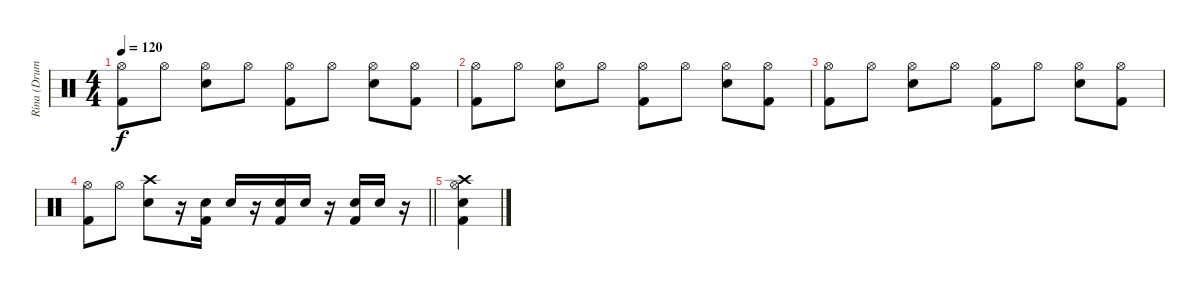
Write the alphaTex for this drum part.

\track ("Rina (Drums)" "Rina (Drum") {instrument percussion}
\staff {score}
\articulation defaults
\ts (4 4)
\tempo 120
\clef neutral
\ks c
("Hi-Hat (open)" "Kick (hit) 2").8{dy f} "Hi-Hat (open)".8 ("Hi-Hat (open)" "Snare (hit) 2").8 "Hi-Hat (open)".8 ("Hi-Hat (open)" "Kick (hit) 2").8 "Hi-Hat (open)".8 ("Hi-Hat (open)" "Snare (hit) 2").8 ("Hi-Hat (open)" "Kick (hit) 2").8 |
("Hi-Hat (open)" "Kick (hit) 2").8 "Hi-Hat (open)".8 ("Hi-Hat (open)" "Snare (hit) 2").8 "Hi-Hat (open)".8 ("Hi-Hat (open)" "Kick (hit) 2").8 "Hi-Hat (open)".8 ("Hi-Hat (open)" "Snare (hit) 2").8 ("Hi-Hat (open)" "Kick (hit) 2").8 |
("Hi-Hat (open)" "Kick (hit) 2").8 "Hi-Hat (open)".8 ("Hi-Hat (open)" "Snare (hit) 2").8 "Hi-Hat (open)".8 ("Hi-Hat (open)" "Kick (hit) 2").8 "Hi-Hat (open)".8 ("Hi-Hat (open)" "Snare (hit) 2").8 ("Hi-Hat (open)" "Kick (hit) 2").8 |
\barLineRight lightlight
("Hi-Hat (open)" "Kick (hit) 2").8 "Hi-Hat (open)".8 ("Crash high (hit)" "Snare (hit) 2").8 r.16 ("Snare (hit) 2" "Kick (hit) 2").16 "Snare (hit) 2".16 r.16 ("Snare (hit) 2" "Kick (hit) 2").16 "Snare (hit) 2".16 r.16 ("Snare (hit) 2" "Kick (hit) 2").16 "Snare (hit) 2".16 r.16 |
("Crash high (hit)" "Snare (hit) 2" "Hi-Hat (open)" "Kick (hit) 2").4
